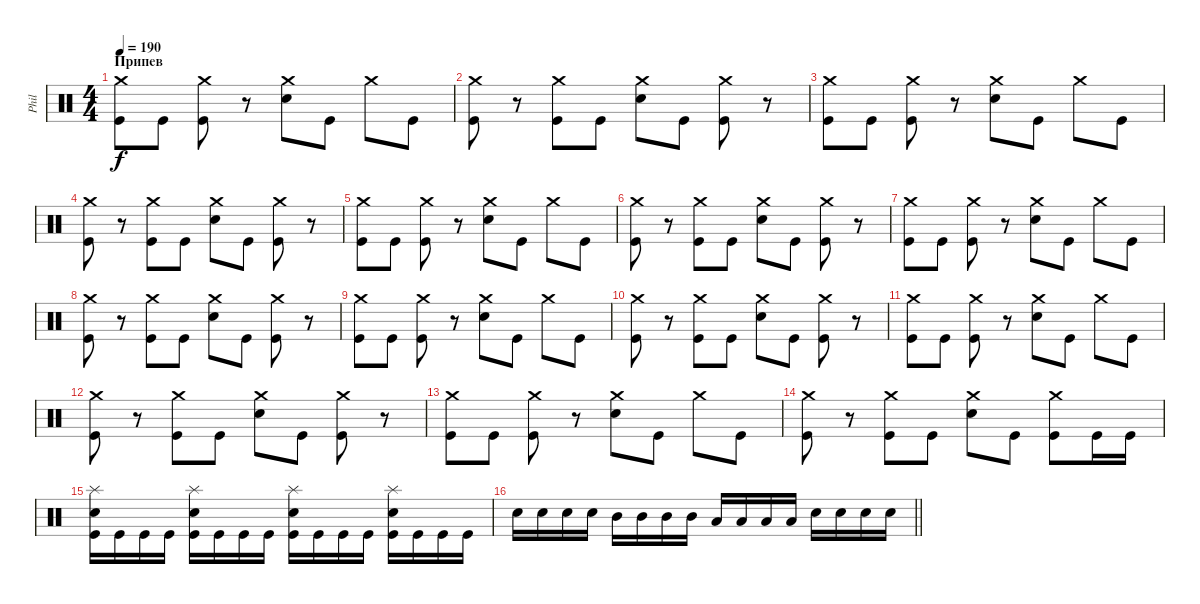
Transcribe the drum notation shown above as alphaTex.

\track ("Phil" "Phil") {instrument percussion}
\staff {score}
\articulation defaults
\ts (4 4)
\section ("" "Припев")
\tempo 190
\clef neutral
\ks c
("Crash medium (hit)" "Kick (hit)").8{dy f} "Kick (hit)".8 ("Crash medium (hit)" "Kick (hit)").8 r.8 ("Crash medium (hit)" "Electric Snare (hit)").8 "Kick (hit)".8 "Crash medium (hit)".8 "Kick (hit)".8 |
("Crash medium (hit)" "Kick (hit)").8 r.8 ("Crash medium (hit)" "Kick (hit)").8 "Kick (hit)".8 ("Crash medium (hit)" "Electric Snare (hit)").8 "Kick (hit)".8 ("Crash medium (hit)" "Kick (hit)").8 r.8 |
("Crash medium (hit)" "Kick (hit)").8 "Kick (hit)".8 ("Crash medium (hit)" "Kick (hit)").8 r.8 ("Crash medium (hit)" "Electric Snare (hit)").8 "Kick (hit)".8 "Crash medium (hit)".8 "Kick (hit)".8 |
("Crash medium (hit)" "Kick (hit)").8 r.8 ("Crash medium (hit)" "Kick (hit)").8 "Kick (hit)".8 ("Crash medium (hit)" "Electric Snare (hit)").8 "Kick (hit)".8 ("Crash medium (hit)" "Kick (hit)").8 r.8 |
("Crash medium (hit)" "Kick (hit)").8 "Kick (hit)".8 ("Crash medium (hit)" "Kick (hit)").8 r.8 ("Crash medium (hit)" "Electric Snare (hit)").8 "Kick (hit)".8 "Crash medium (hit)".8 "Kick (hit)".8 |
("Crash medium (hit)" "Kick (hit)").8 r.8 ("Crash medium (hit)" "Kick (hit)").8 "Kick (hit)".8 ("Crash medium (hit)" "Electric Snare (hit)").8 "Kick (hit)".8 ("Crash medium (hit)" "Kick (hit)").8 r.8 |
("Crash medium (hit)" "Kick (hit)").8 "Kick (hit)".8 ("Crash medium (hit)" "Kick (hit)").8 r.8 ("Crash medium (hit)" "Electric Snare (hit)").8 "Kick (hit)".8 "Crash medium (hit)".8 "Kick (hit)".8 |
("Crash medium (hit)" "Kick (hit)").8 r.8 ("Crash medium (hit)" "Kick (hit)").8 "Kick (hit)".8 ("Crash medium (hit)" "Electric Snare (hit)").8 "Kick (hit)".8 ("Crash medium (hit)" "Kick (hit)").8 r.8 |
("Crash medium (hit)" "Kick (hit)").8 "Kick (hit)".8 ("Crash medium (hit)" "Kick (hit)").8 r.8 ("Crash medium (hit)" "Electric Snare (hit)").8 "Kick (hit)".8 "Crash medium (hit)".8 "Kick (hit)".8 |
("Crash medium (hit)" "Kick (hit)").8 r.8 ("Crash medium (hit)" "Kick (hit)").8 "Kick (hit)".8 ("Crash medium (hit)" "Electric Snare (hit)").8 "Kick (hit)".8 ("Crash medium (hit)" "Kick (hit)").8 r.8 |
("Crash medium (hit)" "Kick (hit)").8 "Kick (hit)".8 ("Crash medium (hit)" "Kick (hit)").8 r.8 ("Crash medium (hit)" "Electric Snare (hit)").8 "Kick (hit)".8 "Crash medium (hit)".8 "Kick (hit)".8 |
("Crash medium (hit)" "Kick (hit)").8 r.8 ("Crash medium (hit)" "Kick (hit)").8 "Kick (hit)".8 ("Crash medium (hit)" "Electric Snare (hit)").8 "Kick (hit)".8 ("Crash medium (hit)" "Kick (hit)").8 r.8 |
("Crash medium (hit)" "Kick (hit)").8 "Kick (hit)".8 ("Crash medium (hit)" "Kick (hit)").8 r.8 ("Crash medium (hit)" "Electric Snare (hit)").8 "Kick (hit)".8 "Crash medium (hit)".8 "Kick (hit)".8 |
("Crash medium (hit)" "Kick (hit)").8 r.8 ("Crash medium (hit)" "Kick (hit)").8 "Kick (hit)".8 ("Crash medium (hit)" "Electric Snare (hit)").8 "Kick (hit)".8 ("Crash medium (hit)" "Kick (hit)").8 "Kick (hit)".16 "Kick (hit)".16 |
("Splash (hit)" "Electric Snare (hit)" "Kick (hit)").16 "Kick (hit)".16 "Kick (hit)".16 "Kick (hit)".16 ("Splash (hit)" "Electric Snare (hit)" "Kick (hit)").16 "Kick (hit)".16 "Kick (hit)".16 "Kick (hit)".16 ("Splash (hit)" "Electric Snare (hit)" "Kick (hit)").16 "Kick (hit)".16 "Kick (hit)".16 "Kick (hit)".16 ("Splash (hit)" "Electric Snare (hit)" "Kick (hit)").16 "Kick (hit)".16 "Kick (hit)".16 "Kick (hit)".16 |
\barLineRight lightlight "Electric Snare (hit)".16 "Electric Snare (hit)".16 "Electric Snare (hit)".16 "Electric Snare (hit)".16 "Mid Tom (hit)".16 "Mid Tom (hit)".16 "Mid Tom (hit)".16 "Mid Tom (hit)".16 "Low Tom (hit)".16 "Low Tom (hit)".16 "Low Tom (hit)".16 "Low Tom (hit)".16 "Electric Snare (hit)".16 "Electric Snare (hit)".16 "Electric Snare (hit)".16 "Electric Snare (hit)".16
